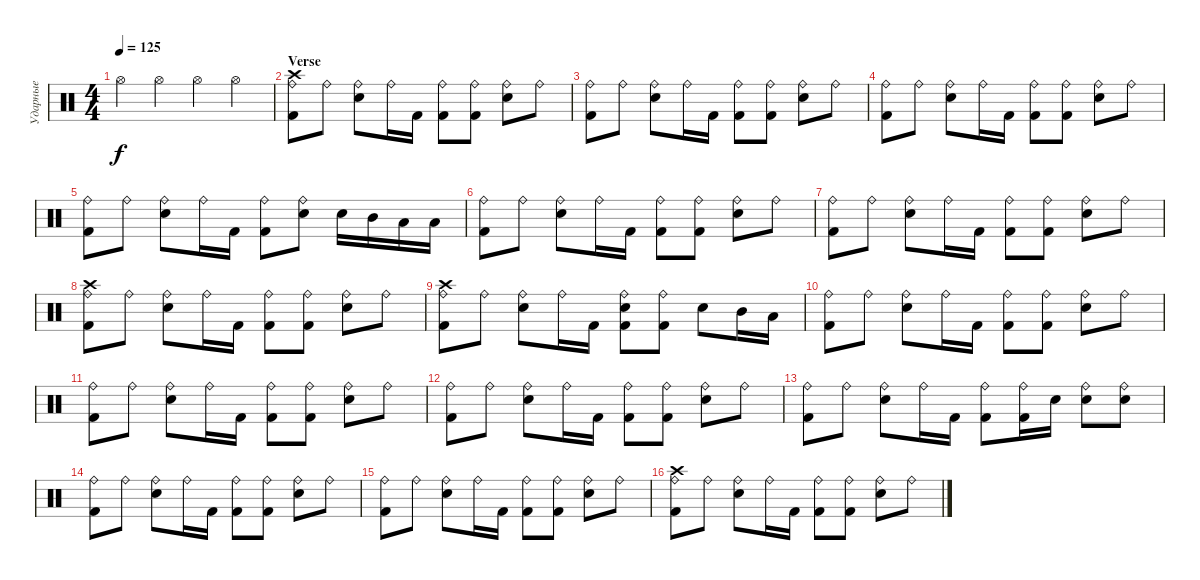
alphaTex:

\track ("Ударные" "Ударные") {instrument percussion}
\staff {score}
\articulation defaults
\ts (4 4)
\tempo 125
\clef neutral
\ks c "Hi-Hat (open)".4{dy f} "Hi-Hat (open)".4 "Hi-Hat (open)".4 "Hi-Hat (open)".4
|
\section ("" "Verse")
("Ride (bell)" "Crash high (hit)" "Kick (hit) 2").8 "Ride (bell)".8 ("Ride (bell)" "Snare (hit) 2").8 "Ride (bell)".16 "Kick (hit) 2".16 ("Ride (bell)" "Kick (hit) 2").8 ("Ride (bell)" "Kick (hit) 2").8 ("Ride (bell)" "Snare (hit) 2").8 "Ride (bell)".8 |
("Ride (bell)" "Kick (hit) 2").8 "Ride (bell)".8 ("Ride (bell)" "Snare (hit) 2").8 "Ride (bell)".16 "Kick (hit) 2".16 ("Ride (bell)" "Kick (hit) 2").8 ("Ride (bell)" "Kick (hit) 2").8 ("Ride (bell)" "Snare (hit) 2").8 "Ride (bell)".8 |
("Ride (bell)" "Kick (hit) 2").8 "Ride (bell)".8 ("Ride (bell)" "Snare (hit) 2").8 "Ride (bell)".16 "Kick (hit) 2".16 ("Ride (bell)" "Kick (hit) 2").8 ("Ride (bell)" "Kick (hit) 2").8 ("Ride (bell)" "Snare (hit) 2").8 "Ride (bell)".8 |
("Ride (bell)" "Kick (hit) 2").8 "Ride (bell)".8 ("Ride (bell)" "Snare (hit) 2").8 "Ride (bell)".16 "Kick (hit) 2".16 ("Ride (bell)" "Kick (hit) 2").8 ("Ride (bell)" "Snare (hit) 2").8 "Snare (hit) 2".16 "Mid Tom (hit)".16 "Low Tom (hit)".16 "Low Floor Tom (hit)".16 |
("Ride (bell)" "Kick (hit) 2").8 "Ride (bell)".8 ("Ride (bell)" "Snare (hit) 2").8 "Ride (bell)".16 "Kick (hit) 2".16 ("Ride (bell)" "Kick (hit) 2").8 ("Ride (bell)" "Kick (hit) 2").8 ("Ride (bell)" "Snare (hit) 2").8 "Ride (bell)".8 |
("Ride (bell)" "Kick (hit) 2").8 "Ride (bell)".8 ("Ride (bell)" "Snare (hit) 2").8 "Ride (bell)".16 "Kick (hit) 2".16 ("Ride (bell)" "Kick (hit) 2").8 ("Ride (bell)" "Kick (hit) 2").8 ("Ride (bell)" "Snare (hit) 2").8 "Ride (bell)".8 |
("Ride (bell)" "Crash high (hit)" "Kick (hit) 2").8 "Ride (bell)".8 ("Ride (bell)" "Snare (hit) 2").8 "Ride (bell)".16 "Kick (hit) 2".16 ("Ride (bell)" "Kick (hit) 2").8 ("Ride (bell)" "Kick (hit) 2").8 ("Ride (bell)" "Snare (hit) 2").8 "Ride (bell)".8 |
("Ride (bell)" "Crash high (hit)" "Kick (hit) 2").8 "Ride (bell)".8 ("Ride (bell)" "Snare (hit) 2").8 "Ride (bell)".16 "Kick (hit) 2".16 ("Ride (bell)" "Snare (hit) 2" "Kick (hit) 2").8 ("Ride (bell)" "Kick (hit) 2").8 "Snare (hit) 2".8 "Mid Tom (hit)".16 "Low Tom (hit)".16 |
("Ride (bell)" "Kick (hit) 2").8 "Ride (bell)".8 ("Ride (bell)" "Snare (hit) 2").8 "Ride (bell)".16 "Kick (hit) 2".16 ("Ride (bell)" "Kick (hit) 2").8 ("Ride (bell)" "Kick (hit) 2").8 ("Ride (bell)" "Snare (hit) 2").8 "Ride (bell)".8 |
("Ride (bell)" "Kick (hit) 2").8 "Ride (bell)".8 ("Ride (bell)" "Snare (hit) 2").8 "Ride (bell)".16 "Kick (hit) 2".16 ("Ride (bell)" "Kick (hit) 2").8 ("Ride (bell)" "Kick (hit) 2").8 ("Ride (bell)" "Snare (hit) 2").8 "Ride (bell)".8 |
("Ride (bell)" "Kick (hit) 2").8 "Ride (bell)".8 ("Ride (bell)" "Snare (hit) 2").8 "Ride (bell)".16 "Kick (hit) 2".16 ("Ride (bell)" "Kick (hit) 2").8 ("Ride (bell)" "Kick (hit) 2").8 ("Ride (bell)" "Snare (hit) 2").8 "Ride (bell)".8 |
("Ride (bell)" "Kick (hit) 2").8 "Ride (bell)".8 ("Ride (bell)" "Snare (hit) 2").8 "Ride (bell)".16 "Kick (hit) 2".16 ("Ride (bell)" "Kick (hit) 2").8 ("Ride (bell)" "Kick (hit) 2").16 "Snare (hit) 2".16 ("Ride (bell)" "Snare (hit) 2").8 ("Ride (bell)" "Snare (hit) 2").8 |
("Ride (bell)" "Kick (hit) 2").8 "Ride (bell)".8 ("Ride (bell)" "Snare (hit) 2").8 "Ride (bell)".16 "Kick (hit) 2".16 ("Ride (bell)" "Kick (hit) 2").8 ("Ride (bell)" "Kick (hit) 2").8 ("Ride (bell)" "Snare (hit) 2").8 "Ride (bell)".8 |
("Ride (bell)" "Kick (hit) 2").8 "Ride (bell)".8 ("Ride (bell)" "Snare (hit) 2").8 "Ride (bell)".16 "Kick (hit) 2".16 ("Ride (bell)" "Kick (hit) 2").8 ("Ride (bell)" "Kick (hit) 2").8 ("Ride (bell)" "Snare (hit) 2").8 "Ride (bell)".8 |
("Ride (bell)" "Crash high (hit)" "Kick (hit) 2").8 "Ride (bell)".8 ("Ride (bell)" "Snare (hit) 2").8 "Ride (bell)".16 "Kick (hit) 2".16 ("Ride (bell)" "Kick (hit) 2").8 ("Ride (bell)" "Kick (hit) 2").8 ("Ride (bell)" "Snare (hit) 2").8 "Ride (bell)".8
